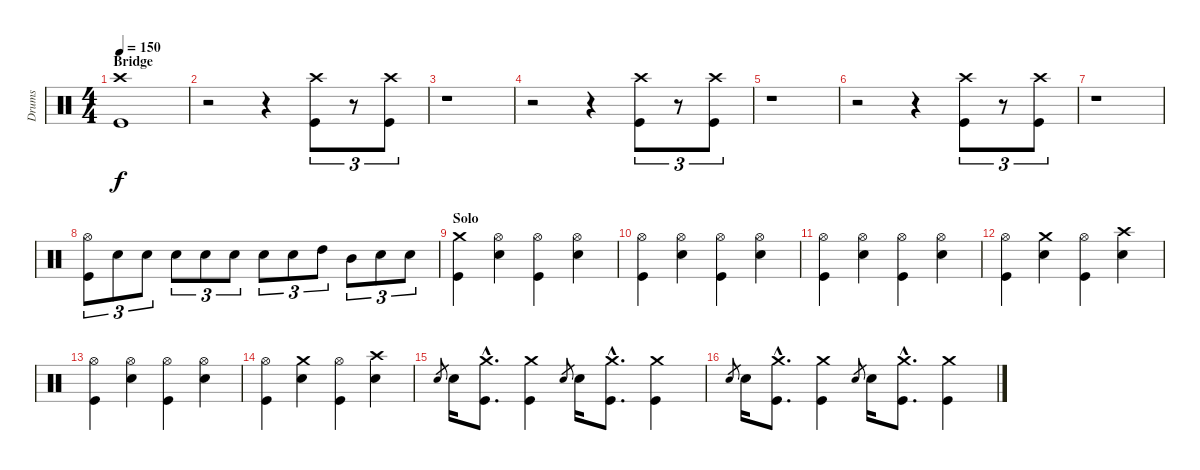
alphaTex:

\track ("Drums" "Drums") {instrument percussion}
\staff {score}
\articulation defaults
\ts (4 4)
\section ("" "Bridge")
\tempo 150
\clef neutral
\ks c
("Crash high (hit)" "Kick (hit)").1{dy f} |
r.2 r.4 ("Crash high (hit)" "Kick (hit)").8{tu (3 2)} r.8{tu (3 2)} ("Crash high (hit)" "Kick (hit)").8{tu (3 2)} |
r.1 |
r.2 r.4 ("Crash high (hit)" "Kick (hit)").8{tu (3 2)} r.8{tu (3 2)} ("Crash high (hit)" "Kick (hit)").8{tu (3 2)} |
r.1 |
r.2 r.4 ("Crash high (hit)" "Kick (hit)").8{tu (3 2)} r.8{tu (3 2)} ("Crash high (hit)" "Kick (hit)").8{tu (3 2)} |
r.1 |
("Hi-Hat (open)" "Kick (hit)").8{tu (3 2)} "Snare (hit) 2".8{tu (3 2)} "Snare (hit) 2".8{tu (3 2)} "Snare (hit) 2".8{tu (3 2)} "Snare (hit) 2".8{tu (3 2)} "Snare (hit) 2".8{tu (3 2)} "Snare (hit) 2".8{tu (3 2)} "Snare (hit) 2".8{tu (3 2)} "High Tom (hit)".8{tu (3 2)} "Mid Tom (hit)".8{tu (3 2)} "Snare (hit) 2".8{tu (3 2)} "Snare (hit) 2".8{tu (3 2)} |
\section ("" "Solo")
("Crash medium (hit)" "Kick (hit)").4 ("Hi-Hat (open)" "Snare (hit) 2").4 ("Hi-Hat (open)" "Kick (hit)").4 ("Hi-Hat (open)" "Snare (hit) 2").4 |
("Hi-Hat (open)" "Kick (hit)").4 ("Hi-Hat (open)" "Snare (hit) 2").4 ("Hi-Hat (open)" "Kick (hit)").4 ("Hi-Hat (open)" "Snare (hit) 2").4 |
("Hi-Hat (open)" "Kick (hit)").4 ("Hi-Hat (open)" "Snare (hit) 2").4 ("Hi-Hat (open)" "Kick (hit)").4 ("Hi-Hat (open)" "Snare (hit) 2").4 |
("Hi-Hat (open)" "Kick (hit)").4 ("Crash medium (hit)" "Snare (hit) 2").4 ("Hi-Hat (open)" "Kick (hit)").4 ("Crash high (hit)" "Snare (hit) 2").4 |
("Hi-Hat (open)" "Kick (hit)").4 ("Hi-Hat (open)" "Snare (hit) 2").4 ("Hi-Hat (open)" "Kick (hit)").4 ("Hi-Hat (open)" "Snare (hit) 2").4 |
("Hi-Hat (open)" "Kick (hit)").4 ("Crash medium (hit)" "Snare (hit) 2").4 ("Hi-Hat (open)" "Kick (hit)").4 ("Crash high (hit)" "Snare (hit) 2").4 |
"Snare (hit) 2".8{gr} "Snare (hit) 2".16 ("Crash medium (hit)"{hac} "Kick (hit)"{hac}).8{d} ("Crash medium (hit)" "Kick (hit)").4 "Snare (hit) 2".8{gr} "Snare (hit) 2".16 ("Crash medium (hit)"{hac} "Kick (hit)"{hac}).8{d} ("Crash medium (hit)" "Kick (hit)").4 |
"Snare (hit) 2".8{gr} "Snare (hit) 2".16 ("Crash medium (hit)"{hac} "Kick (hit)"{hac}).8{d} ("Crash medium (hit)" "Kick (hit)").4 "Snare (hit) 2".8{gr} "Snare (hit) 2".16 ("Crash medium (hit)"{hac} "Kick (hit)"{hac}).8{d} ("Crash medium (hit)" "Kick (hit)").4
